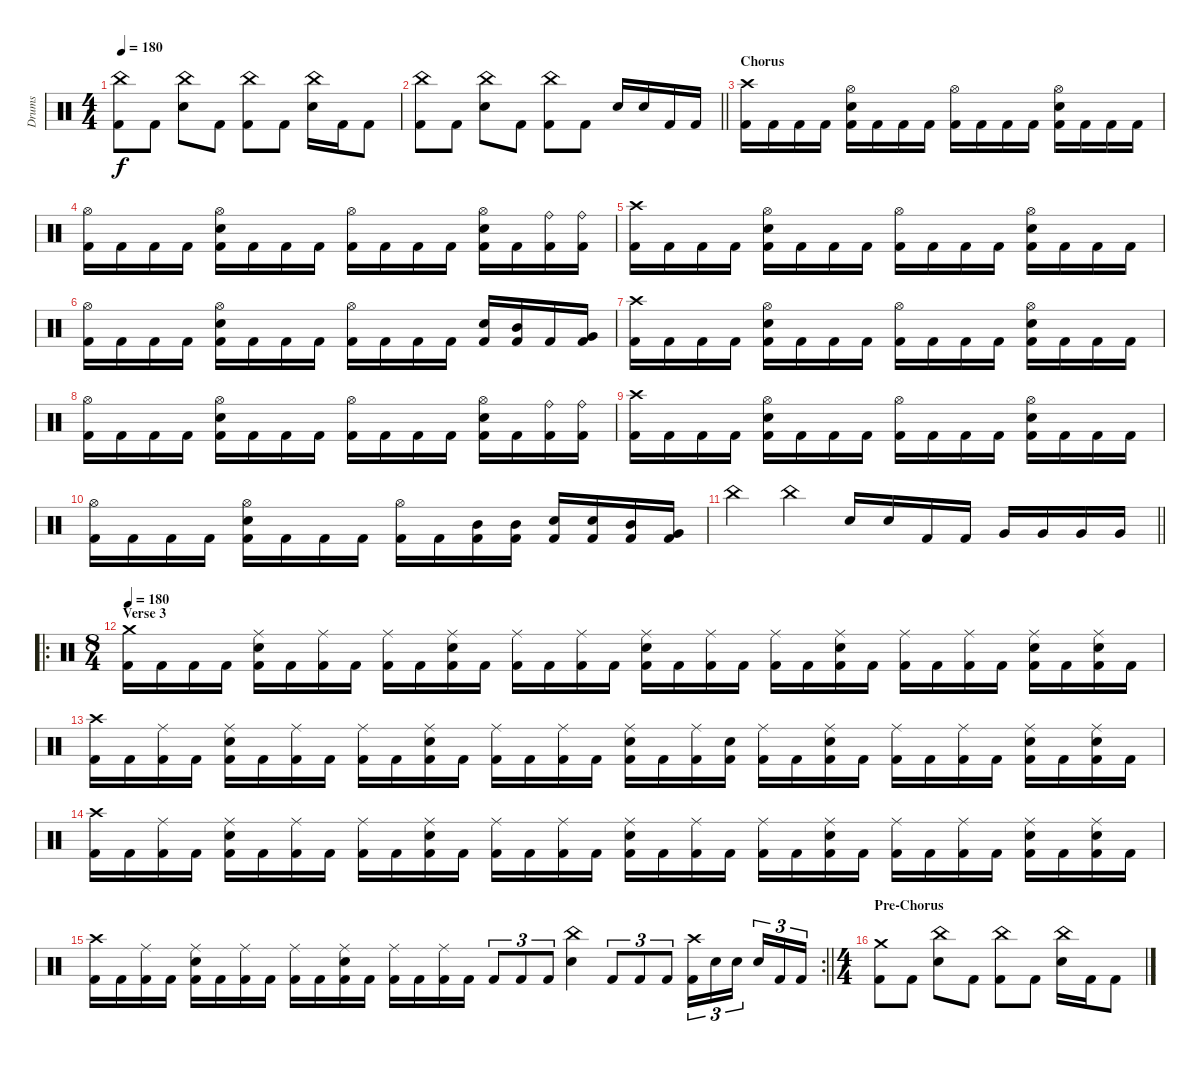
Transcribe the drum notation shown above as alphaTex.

\track ("Drums" "Drums") {instrument percussion}
\staff {score}
\articulation defaults
\ts (4 4)
\tempo 180
\clef neutral
\ks c
("China (hit)" "Kick (hit) 2").8{dy f} "Kick (hit) 2".8 ("China (hit)" "Snare (hit) 2").8 "Kick (hit) 2".8 ("China (hit)" "Kick (hit) 2").8 "Kick (hit) 2".8 ("China (hit)" "Snare (hit) 2").16 "Kick (hit) 2".16 "Kick (hit) 2".8 |
\barLineRight lightlight
("China (hit)" "Kick (hit) 2").8 "Kick (hit) 2".8 ("China (hit)" "Snare (hit) 2").8 "Kick (hit) 2".8 ("China (hit)" "Kick (hit) 2").8 "Kick (hit) 2".8 "Snare (hit) 2".16 "Snare (hit) 2".16 "Kick (hit) 2".16 "Kick (hit) 2".16 |
\section ("" "Chorus")
("Crash high (hit)" "Kick (hit) 2").16 "Kick (hit) 2".16 "Kick (hit) 2".16 "Kick (hit) 2".16 ("Hi-Hat (open)" "Snare (hit) 2" "Kick (hit) 2").16 "Kick (hit) 2".16 "Kick (hit) 2".16 "Kick (hit) 2".16 ("Hi-Hat (open)" "Kick (hit) 2").16 "Kick (hit) 2".16 "Kick (hit) 2".16 "Kick (hit) 2".16 ("Hi-Hat (open)" "Snare (hit) 2" "Kick (hit) 2").16 "Kick (hit) 2".16 "Kick (hit) 2".16 "Kick (hit) 2".16 |
("Hi-Hat (open)" "Kick (hit) 2").16 "Kick (hit) 2".16 "Kick (hit) 2".16 "Kick (hit) 2".16 ("Hi-Hat (open)" "Snare (hit) 2" "Kick (hit) 2").16 "Kick (hit) 2".16 "Kick (hit) 2".16 "Kick (hit) 2".16 ("Hi-Hat (open)" "Kick (hit) 2").16 "Kick (hit) 2".16 "Kick (hit) 2".16 "Kick (hit) 2".16 ("Hi-Hat (open)" "Snare (hit) 2" "Kick (hit) 2").16 "Kick (hit) 2".16 ("Ride (bell)" "Kick (hit) 2").16 ("Ride (bell)" "Kick (hit) 2").16 |
("Crash high (hit)" "Kick (hit) 2").16 "Kick (hit) 2".16 "Kick (hit) 2".16 "Kick (hit) 2".16 ("Hi-Hat (open)" "Snare (hit) 2" "Kick (hit) 2").16 "Kick (hit) 2".16 "Kick (hit) 2".16 "Kick (hit) 2".16 ("Hi-Hat (open)" "Kick (hit) 2").16 "Kick (hit) 2".16 "Kick (hit) 2".16 "Kick (hit) 2".16 ("Hi-Hat (open)" "Snare (hit) 2" "Kick (hit) 2").16 "Kick (hit) 2".16 "Kick (hit) 2".16 "Kick (hit) 2".16 |
("Hi-Hat (open)" "Kick (hit) 2").16 "Kick (hit) 2".16 "Kick (hit) 2".16 "Kick (hit) 2".16 ("Hi-Hat (open)" "Snare (hit) 2" "Kick (hit) 2").16 "Kick (hit) 2".16 "Kick (hit) 2".16 "Kick (hit) 2".16 ("Hi-Hat (open)" "Kick (hit) 2").16 "Kick (hit) 2".16 "Kick (hit) 2".16 "Kick (hit) 2".16 ("Snare (hit) 2" "Kick (hit) 2").16 ("Mid Tom (hit)" "Kick (hit) 2").16 "Kick (hit) 2".16 ("Very Low Tom (hit)" "Kick (hit) 2").16 |
("Crash high (hit)" "Kick (hit) 2").16 "Kick (hit) 2".16 "Kick (hit) 2".16 "Kick (hit) 2".16 ("Hi-Hat (open)" "Snare (hit) 2" "Kick (hit) 2").16 "Kick (hit) 2".16 "Kick (hit) 2".16 "Kick (hit) 2".16 ("Hi-Hat (open)" "Kick (hit) 2").16 "Kick (hit) 2".16 "Kick (hit) 2".16 "Kick (hit) 2".16 ("Hi-Hat (open)" "Snare (hit) 2" "Kick (hit) 2").16 "Kick (hit) 2".16 "Kick (hit) 2".16 "Kick (hit) 2".16 |
("Hi-Hat (open)" "Kick (hit) 2").16 "Kick (hit) 2".16 "Kick (hit) 2".16 "Kick (hit) 2".16 ("Hi-Hat (open)" "Snare (hit) 2" "Kick (hit) 2").16 "Kick (hit) 2".16 "Kick (hit) 2".16 "Kick (hit) 2".16 ("Hi-Hat (open)" "Kick (hit) 2").16 "Kick (hit) 2".16 "Kick (hit) 2".16 "Kick (hit) 2".16 ("Hi-Hat (open)" "Snare (hit) 2" "Kick (hit) 2").16 "Kick (hit) 2".16 ("Ride (bell)" "Kick (hit) 2").16 ("Ride (bell)" "Kick (hit) 2").16 |
("Crash high (hit)" "Kick (hit) 2").16 "Kick (hit) 2".16 "Kick (hit) 2".16 "Kick (hit) 2".16 ("Hi-Hat (open)" "Snare (hit) 2" "Kick (hit) 2").16 "Kick (hit) 2".16 "Kick (hit) 2".16 "Kick (hit) 2".16 ("Hi-Hat (open)" "Kick (hit) 2").16 "Kick (hit) 2".16 "Kick (hit) 2".16 "Kick (hit) 2".16 ("Hi-Hat (open)" "Snare (hit) 2" "Kick (hit) 2").16 "Kick (hit) 2".16 "Kick (hit) 2".16 "Kick (hit) 2".16 |
("Hi-Hat (open)" "Kick (hit) 2").16 "Kick (hit) 2".16 "Kick (hit) 2".16 "Kick (hit) 2".16 ("Hi-Hat (open)" "Snare (hit) 2" "Kick (hit) 2").16 "Kick (hit) 2".16 "Kick (hit) 2".16 "Kick (hit) 2".16 ("Hi-Hat (open)" "Kick (hit) 2").16 "Kick (hit) 2".16 ("Mid Tom (hit)" "Kick (hit) 2").16 ("Mid Tom (hit)" "Kick (hit) 2").16 ("Snare (hit) 2" "Kick (hit) 2").16 ("Snare (hit) 2" "Kick (hit) 2").16 ("Mid Tom (hit)" "Kick (hit) 2").16 ("Very Low Tom (hit)" "Kick (hit) 2").16 |
\barLineRight lightlight "China (hit)".4 "China (hit)".4 "Snare (hit) 2".16 "Snare (hit) 2".16 "Kick (hit) 2".16 "Kick (hit) 2".16 "Very Low Tom (hit)".16 "Very Low Tom (hit)".16 "Very Low Tom (hit)".16 "Very Low Tom (hit)".16
|
\ro
\ts (8 4)
\section ("" "Verse 3")
\tempo 180
("Crash medium (hit)" "Kick (hit) 2").16 "Kick (hit) 2".16 "Kick (hit) 2".16 "Kick (hit) 2".16 ("Ride (middle)" "Snare (hit) 2" "Kick (hit) 2").16 "Kick (hit) 2".16 ("Ride (middle)" "Kick (hit) 2").16 "Kick (hit) 2".16 ("Ride (middle)" "Kick (hit) 2").16 "Kick (hit) 2".16 ("Ride (middle)" "Snare (hit) 2" "Kick (hit) 2").16 "Kick (hit) 2".16 ("Ride (middle)" "Kick (hit) 2").16 "Kick (hit) 2".16 ("Ride (middle)" "Kick (hit) 2").16 "Kick (hit) 2".16 ("Ride (middle)" "Snare (hit) 2" "Kick (hit) 2").16 "Kick (hit) 2".16 ("Ride (middle)" "Kick (hit) 2").16 "Kick (hit) 2".16 ("Ride (middle)" "Kick (hit) 2").16 "Kick (hit) 2".16 ("Ride (middle)" "Snare (hit) 2" "Kick (hit) 2").16 "Kick (hit) 2".16 ("Ride (middle)" "Kick (hit) 2").16 "Kick (hit) 2".16 ("Ride (middle)" "Kick (hit) 2").16 "Kick (hit) 2".16 ("Ride (middle)" "Snare (hit) 2" "Kick (hit) 2").16 "Kick (hit) 2".16 ("Ride (middle)" "Snare (hit) 2" "Kick (hit) 2").16 "Kick (hit) 2".16 |
("Crash high (hit)" "Kick (hit) 2").16 "Kick (hit) 2".16 ("Ride (middle)" "Kick (hit) 2").16 "Kick (hit) 2".16 ("Ride (middle)" "Snare (hit) 2" "Kick (hit) 2").16 "Kick (hit) 2".16 ("Ride (middle)" "Kick (hit) 2").16 "Kick (hit) 2".16 ("Ride (middle)" "Kick (hit) 2").16 "Kick (hit) 2".16 ("Ride (middle)" "Snare (hit) 2" "Kick (hit) 2").16 "Kick (hit) 2".16 ("Ride (middle)" "Kick (hit) 2").16 "Kick (hit) 2".16 ("Ride (middle)" "Kick (hit) 2").16 "Kick (hit) 2".16 ("Ride (middle)" "Snare (hit) 2" "Kick (hit) 2").16 "Kick (hit) 2".16 ("Ride (middle)" "Kick (hit) 2").16 ("Snare (hit)" "Kick (hit) 2").16 ("Ride (middle)" "Kick (hit) 2").16 "Kick (hit) 2".16 ("Ride (middle)" "Snare (hit) 2" "Kick (hit) 2").16 "Kick (hit) 2".16 ("Ride (middle)" "Kick (hit) 2").16 "Kick (hit) 2".16 ("Ride (middle)" "Kick (hit) 2").16 "Kick (hit) 2".16 ("Ride (middle)" "Snare (hit) 2" "Kick (hit) 2").16 "Kick (hit) 2".16 ("Ride (middle)" "Snare (hit) 2" "Kick (hit) 2").16 "Kick (hit) 2".16 |
("Crash high (hit)" "Kick (hit) 2").16 "Kick (hit) 2".16 ("Ride (middle)" "Kick (hit) 2").16 "Kick (hit) 2".16 ("Ride (middle)" "Snare (hit) 2" "Kick (hit) 2").16 "Kick (hit) 2".16 ("Ride (middle)" "Kick (hit) 2").16 "Kick (hit) 2".16 ("Ride (middle)" "Kick (hit) 2").16 "Kick (hit) 2".16 ("Ride (middle)" "Snare (hit) 2" "Kick (hit) 2").16 "Kick (hit) 2".16 ("Ride (middle)" "Kick (hit) 2").16 "Kick (hit) 2".16 ("Ride (middle)" "Kick (hit) 2").16 "Kick (hit) 2".16 ("Ride (middle)" "Snare (hit) 2" "Kick (hit) 2").16 "Kick (hit) 2".16 ("Ride (middle)" "Kick (hit) 2").16 "Kick (hit) 2".16 ("Ride (middle)" "Kick (hit) 2").16 "Kick (hit) 2".16 ("Ride (middle)" "Snare (hit) 2" "Kick (hit) 2").16 "Kick (hit) 2".16 ("Ride (middle)" "Kick (hit) 2").16 "Kick (hit) 2".16 ("Ride (middle)" "Kick (hit) 2").16 "Kick (hit) 2".16 ("Ride (middle)" "Snare (hit) 2" "Kick (hit) 2").16 "Kick (hit) 2".16 ("Ride (middle)" "Snare (hit) 2" "Kick (hit) 2").16 "Kick (hit) 2".16 |
\rc 2
\barLineRight lightlight
("Crash high (hit)" "Kick (hit) 2").16 "Kick (hit) 2".16 ("Ride (middle)" "Kick (hit) 2").16 "Kick (hit) 2".16 ("Ride (middle)" "Snare (hit) 2" "Kick (hit) 2").16 "Kick (hit) 2".16 ("Ride (middle)" "Kick (hit) 2").16 "Kick (hit) 2".16 ("Ride (middle)" "Kick (hit) 2").16 "Kick (hit) 2".16 ("Ride (middle)" "Snare (hit) 2" "Kick (hit) 2").16 "Kick (hit) 2".16 ("Ride (middle)" "Kick (hit) 2").16 "Kick (hit) 2".16 ("Ride (middle)" "Kick (hit) 2").16 "Kick (hit) 2".16 "Kick (hit) 2".8{tu (3 2)} "Kick (hit) 2".8{tu (3 2)} "Kick (hit) 2".8{tu (3 2)} ("China (hit)" "Snare (hit) 2").4 "Kick (hit) 2".8{tu (3 2)} "Kick (hit) 2".8{tu (3 2)} "Kick (hit) 2".8{tu (3 2)} ("Crash high (hit)" "Kick (hit) 2").16{tu (3 2)} "Snare (hit) 2".16{tu (3 2)} "Snare (hit) 2".16{tu (3 2) beam splitsecondary} "Snare (hit) 2".16{tu (3 2)} "Kick (hit) 2".16{tu (3 2)} "Kick (hit) 2".16{tu (3 2)} |
\ts (4 4)
\section ("" "Pre-Chorus")
("Crash medium (hit)" "Kick (hit) 2").8 "Kick (hit) 2".8 ("China (hit)" "Snare (hit) 2").8 "Kick (hit) 2".8 ("China (hit)" "Kick (hit) 2").8 "Kick (hit) 2".8 ("China (hit)" "Snare (hit) 2").16 "Kick (hit) 2".16 "Kick (hit) 2".8
